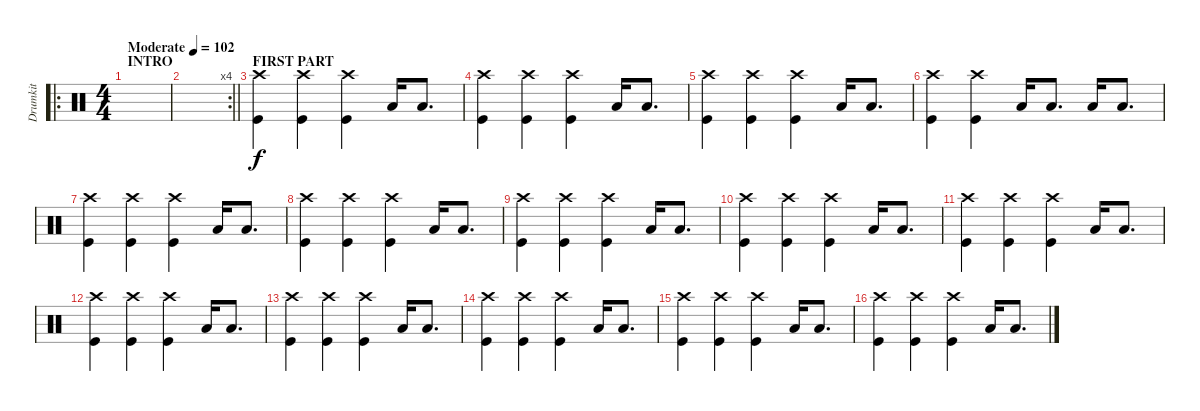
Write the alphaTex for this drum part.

\track ("Drumkit" "Drumkit") {instrument percussion}
\staff {score}
\articulation defaults
\ro
\ts (4 4)
\section ("" "INTRO")
\tempo (102 "Moderate")
\clef neutral
\ks c
|
\rc 4
\barLineRight lightlight
|
\section ("" "FIRST PART")
("Kick (hit)" "Crash high (hit)").4 ("Kick (hit)" "Crash high (hit)").4 ("Kick (hit)" "Crash high (hit)").4 "Low Tom (hit)".16 "Low Tom (hit)".8{d} |
("Kick (hit)" "Crash high (hit)").4 ("Kick (hit)" "Crash high (hit)").4 ("Kick (hit)" "Crash high (hit)").4 "Low Tom (hit)".16 "Low Tom (hit)".8{d} |
("Kick (hit)" "Crash high (hit)").4 ("Kick (hit)" "Crash high (hit)").4 ("Kick (hit)" "Crash high (hit)").4 "Low Tom (hit)".16 "Low Tom (hit)".8{d} |
("Kick (hit)" "Crash high (hit)").4 ("Kick (hit)" "Crash high (hit)").4 "Low Tom (hit)".16 "Low Tom (hit)".8{d} "Low Tom (hit)".16 "Low Tom (hit)".8{d} |
("Kick (hit)" "Crash high (hit)").4 ("Kick (hit)" "Crash high (hit)").4 ("Kick (hit)" "Crash high (hit)").4 "Low Tom (hit)".16 "Low Tom (hit)".8{d} |
("Kick (hit)" "Crash high (hit)").4 ("Kick (hit)" "Crash high (hit)").4 ("Kick (hit)" "Crash high (hit)").4 "Low Tom (hit)".16 "Low Tom (hit)".8{d} |
("Kick (hit)" "Crash high (hit)").4 ("Kick (hit)" "Crash high (hit)").4 ("Kick (hit)" "Crash high (hit)").4 "Low Tom (hit)".16 "Low Tom (hit)".8{d} |
("Kick (hit)" "Crash high (hit)").4 ("Kick (hit)" "Crash high (hit)").4 ("Kick (hit)" "Crash high (hit)").4 "Low Tom (hit)".16 "Low Tom (hit)".8{d} |
("Kick (hit)" "Crash high (hit)").4 ("Kick (hit)" "Crash high (hit)").4 ("Kick (hit)" "Crash high (hit)").4 "Low Tom (hit)".16 "Low Tom (hit)".8{d} |
("Kick (hit)" "Crash high (hit)").4 ("Kick (hit)" "Crash high (hit)").4 ("Kick (hit)" "Crash high (hit)").4 "Low Tom (hit)".16 "Low Tom (hit)".8{d} |
("Kick (hit)" "Crash high (hit)").4 ("Kick (hit)" "Crash high (hit)").4 ("Kick (hit)" "Crash high (hit)").4 "Low Tom (hit)".16 "Low Tom (hit)".8{d} |
("Kick (hit)" "Crash high (hit)").4 ("Kick (hit)" "Crash high (hit)").4 ("Kick (hit)" "Crash high (hit)").4 "Low Tom (hit)".16 "Low Tom (hit)".8{d} |
("Kick (hit)" "Crash high (hit)").4 ("Kick (hit)" "Crash high (hit)").4 ("Kick (hit)" "Crash high (hit)").4 "Low Tom (hit)".16 "Low Tom (hit)".8{d} |
("Kick (hit)" "Crash high (hit)").4 ("Kick (hit)" "Crash high (hit)").4 ("Kick (hit)" "Crash high (hit)").4 "Low Tom (hit)".16 "Low Tom (hit)".8{d}
